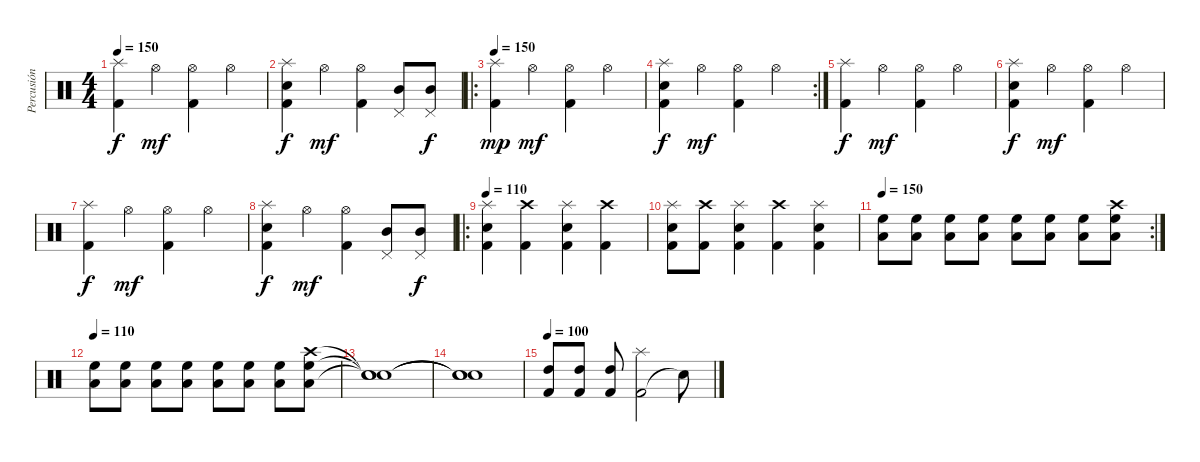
\track ("Percusión" "Percusión") {instrument percussion}
\staff {score}
\articulation defaults
\ts (4 4)
\tempo 150
\clef neutral
\ks c
("Splash (hit)" "Kick (hit) 2").4{dy f} "Hi-Hat (open)".4{dy mf} ("Hi-Hat (open)" "Kick (hit) 2").4 "Hi-Hat (open)".4 |
("Splash (hit)" "Electric Snare (hit)" "Kick (hit) 2").4{dy f} "Hi-Hat (open)".4{dy mf} ("Hi-Hat (open)" "Kick (hit) 2").4 ("Mid Tom (hit)" "Pedal Hi-Hat (hit)").8 ("Mid Tom (hit)" "Pedal Hi-Hat (hit)").8{dy f} |
\ro
\tempo 150
("Splash (hit)" "Kick (hit) 2").4{dy mp} "Hi-Hat (open)".4{dy mf} ("Hi-Hat (open)" "Kick (hit) 2").4 "Hi-Hat (open)".4 |
\rc 2
("Splash (hit)" "Electric Snare (hit)" "Kick (hit) 2").4{dy f} "Hi-Hat (open)".4{dy mf} ("Hi-Hat (open)" "Kick (hit) 2").4 "Hi-Hat (open)".4 |
("Splash (hit)" "Kick (hit) 2").4{dy f} "Hi-Hat (open)".4{dy mf} ("Hi-Hat (open)" "Kick (hit) 2").4 "Hi-Hat (open)".4 |
("Splash (hit)" "Electric Snare (hit)" "Kick (hit) 2").4{dy f} "Hi-Hat (open)".4{dy mf} ("Hi-Hat (open)" "Kick (hit) 2").4 "Hi-Hat (open)".4 |
("Splash (hit)" "Kick (hit) 2").4{dy f} "Hi-Hat (open)".4{dy mf} ("Hi-Hat (open)" "Kick (hit) 2").4 "Hi-Hat (open)".4 |
("Splash (hit)" "Electric Snare (hit)" "Kick (hit) 2").4{dy f} "Hi-Hat (open)".4{dy mf} ("Hi-Hat (open)" "Kick (hit) 2").4 ("Mid Tom (hit)" "Pedal Hi-Hat (hit)").8 ("Mid Tom (hit)" "Pedal Hi-Hat (hit)").8{dy f} |
\ro
\tempo 110
("Splash (hit)" "Electric Snare (hit)" "Kick (hit) 2").4 ("Crash high (hit)" "Kick (hit) 2").4 ("Splash (hit)" "Electric Snare (hit)" "Kick (hit) 2").4 ("Crash high (hit)" "Kick (hit) 2").4 |
("Splash (hit)" "Electric Snare (hit)" "Kick (hit) 2").8 ("Crash high (hit)" "Kick (hit) 2").8 ("Splash (hit)" "Electric Snare (hit)" "Kick (hit) 2").4 ("Crash high (hit)" "Kick (hit) 2").4 ("Splash (hit)" "Electric Snare (hit)" "Kick (hit) 2").4 |
\rc 2
\tempo 150
("Low Floor Tom (hit)" "High Floor Tom (hit)").8 ("Low Floor Tom (hit)" "High Floor Tom (hit)").8 ("Low Floor Tom (hit)" "High Floor Tom (hit)").8 ("Low Floor Tom (hit)" "High Floor Tom (hit)").8 ("Low Floor Tom (hit)" "High Floor Tom (hit)").8 ("Low Floor Tom (hit)" "High Floor Tom (hit)").8 ("Low Floor Tom (hit)" "High Floor Tom (hit)").8 ("Low Floor Tom (hit)" "High Floor Tom (hit)" "Crash high (hit)").8 |
\tempo 110
("Low Floor Tom (hit)" "High Floor Tom (hit)").8 ("Low Floor Tom (hit)" "High Floor Tom (hit)").8 ("Low Floor Tom (hit)" "High Floor Tom (hit)").8 ("Low Floor Tom (hit)" "High Floor Tom (hit)").8 ("Low Floor Tom (hit)" "High Floor Tom (hit)").8 ("Low Floor Tom (hit)" "High Floor Tom (hit)").8 ("Low Floor Tom (hit)" "High Floor Tom (hit)").8 ("Low Floor Tom (hit)" "High Floor Tom (hit)" "Crash high (hit)").8 |
("Snare (hit)"{t} "Snare (hit)"{t} "Snare (hit)"{t}).1 |
("Snare (hit)"{t} "Snare (hit)"{t} "Snare (hit)"{t}).1 |
\tempo 100
("Kick (hit) 2" "High Tom (hit)").8 ("Kick (hit) 2" "High Tom (hit)").8 ("Kick (hit) 2" "High Tom (hit)").8 ("Kick (hit) 2" "Splash (hit)").2 "Snare (hit)"{t}.8
